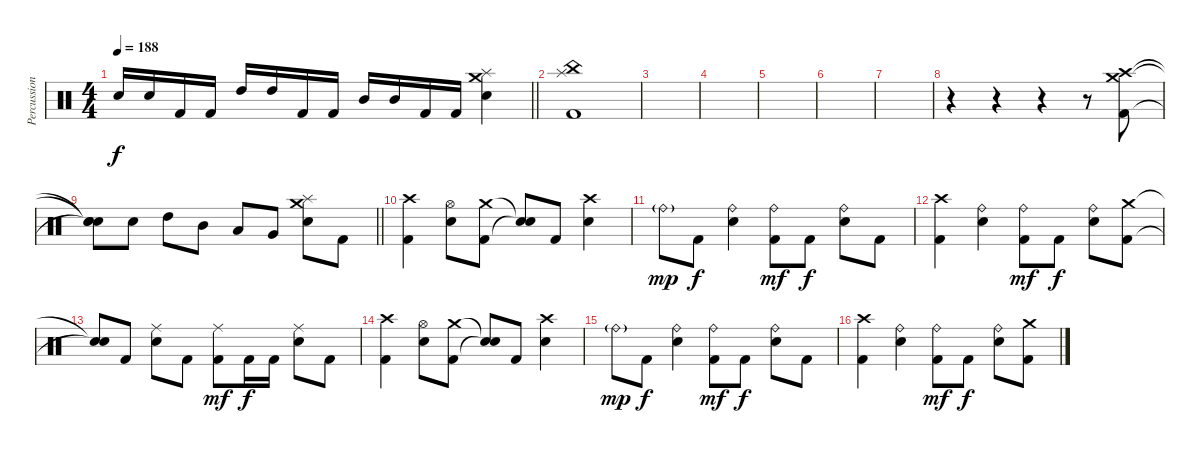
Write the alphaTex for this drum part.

\track ("Percussion" "Percussion") {instrument percussion}
\staff {score}
\articulation defaults
\ts (4 4)
\tempo 188
\clef neutral
\barLineRight lightlight
\ks c "Electric Snare (hit)".16{dy f} "Electric Snare (hit)".16 "Kick (hit) 2".16 "Kick (hit) 2".16 "High Tom (hit)".16 "High Tom (hit)".16 "Kick (hit) 2".16 "Kick (hit) 2".16 "Mid Tom (hit)".16 "Mid Tom (hit)".16 "Kick (hit) 2".16 "Kick (hit) 2".16
("Crash medium (hit)" "Splash (hit)" "Electric Snare (hit)").4 |
("China (hit)" "Splash (hit)" "Kick (hit) 2").1 |
|
|
|
|
|
r.4 r.4 r.4 r.8 ("Crash high (hit)" "Crash medium (hit)" "Kick (hit) 2").8 |
\barLineRight lightlight
("Snare (hit)"{t} "Snare (hit)"{t} "Snare (hit)"{t}).8 "Electric Snare (hit)".8 "High Tom (hit)".8 "Mid Tom (hit)".8 "Low Tom (hit)".8 "Very Low Tom (hit)".8 ("Crash medium (hit)" "Splash (hit)" "Electric Snare (hit)").8 "Kick (hit) 2".8 |
("Crash high (hit)" "Kick (hit) 2").4 ("Hi-Hat (open)" "Electric Snare (hit)").8 ("Crash medium (hit)" "Kick (hit) 2").8 ("Snare (hit)"{t} "Snare (hit)"{t}).8 "Kick (hit) 2".8 ("Crash high (hit)" "Electric Snare (hit)").4 |
"Ride (bell)"{g}.8{dy mp} "Kick (hit) 2".8{dy f} ("Ride (bell)" "Electric Snare (hit)").4 ("Ride (bell)" "Kick (hit) 2").8{dy mf} "Kick (hit) 2".8{dy f} ("Ride (bell)" "Electric Snare (hit)").8 "Kick (hit) 2".8 |
("Crash high (hit)" "Kick (hit) 2").4 ("Ride (bell)" "Electric Snare (hit)").4 ("Ride (bell)" "Kick (hit) 2").8{dy mf} "Kick (hit) 2".8{dy f} ("Ride (bell)" "Electric Snare (hit)").8 ("Crash medium (hit)" "Kick (hit) 2").8 |
("Snare (hit)"{t} "Snare (hit)"{t}).8 "Kick (hit) 2".8 ("Ride (middle)" "Electric Snare (hit)").8 "Kick (hit) 2".8 ("Ride (middle)" "Kick (hit) 2").8{dy mf} "Kick (hit) 2".16{dy f} "Kick (hit) 2".16 ("Ride (middle)" "Electric Snare (hit)").8 "Kick (hit) 2".8 |
("Crash high (hit)" "Kick (hit) 2").4 ("Hi-Hat (open)" "Electric Snare (hit)").8 ("Crash medium (hit)" "Kick (hit) 2").8 ("Snare (hit)"{t} "Snare (hit)"{t}).8 "Kick (hit) 2".8 ("Crash high (hit)" "Electric Snare (hit)").4 |
"Ride (bell)"{g}.8{dy mp} "Kick (hit) 2".8{dy f} ("Ride (bell)" "Electric Snare (hit)").4 ("Ride (bell)" "Kick (hit) 2").8{dy mf} "Kick (hit) 2".8{dy f} ("Ride (bell)" "Electric Snare (hit)").8 "Kick (hit) 2".8 |
("Crash high (hit)" "Kick (hit) 2").4 ("Ride (bell)" "Electric Snare (hit)").4 ("Ride (bell)" "Kick (hit) 2").8{dy mf} "Kick (hit) 2".8{dy f} ("Ride (bell)" "Electric Snare (hit)").8 ("Crash medium (hit)" "Kick (hit) 2").8
